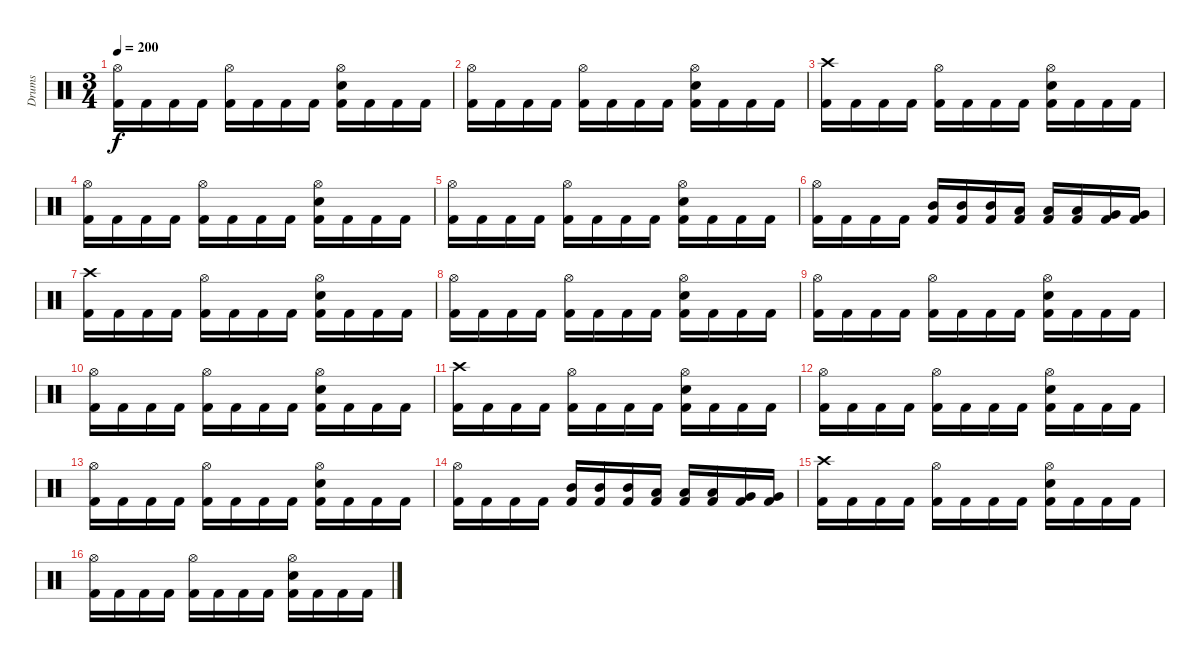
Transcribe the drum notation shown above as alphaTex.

\track ("Drums" "Drums") {instrument percussion}
\staff {score}
\articulation defaults
\ts (3 4)
\tempo 200
\clef neutral
\ks c
("Hi-Hat (open)" "Kick (hit) 2").16{dy f} "Kick (hit) 2".16 "Kick (hit) 2".16 "Kick (hit) 2".16 ("Hi-Hat (open)" "Kick (hit) 2").16 "Kick (hit) 2".16 "Kick (hit) 2".16 "Kick (hit) 2".16 ("Hi-Hat (open)" "Electric Snare (hit)" "Kick (hit) 2").16 "Kick (hit) 2".16 "Kick (hit) 2".16 "Kick (hit) 2".16 |
("Hi-Hat (open)" "Kick (hit) 2").16 "Kick (hit) 2".16 "Kick (hit) 2".16 "Kick (hit) 2".16 ("Hi-Hat (open)" "Kick (hit) 2").16 "Kick (hit) 2".16 "Kick (hit) 2".16 "Kick (hit) 2".16 ("Hi-Hat (open)" "Electric Snare (hit)" "Kick (hit) 2").16 "Kick (hit) 2".16 "Kick (hit) 2".16 "Kick (hit) 2".16 |
("Crash high (hit)" "Kick (hit) 2").16 "Kick (hit) 2".16 "Kick (hit) 2".16 "Kick (hit) 2".16 ("Hi-Hat (open)" "Kick (hit) 2").16 "Kick (hit) 2".16 "Kick (hit) 2".16 "Kick (hit) 2".16 ("Hi-Hat (open)" "Electric Snare (hit)" "Kick (hit) 2").16 "Kick (hit) 2".16 "Kick (hit) 2".16 "Kick (hit) 2".16 |
("Hi-Hat (open)" "Kick (hit) 2").16 "Kick (hit) 2".16 "Kick (hit) 2".16 "Kick (hit) 2".16 ("Hi-Hat (open)" "Kick (hit) 2").16 "Kick (hit) 2".16 "Kick (hit) 2".16 "Kick (hit) 2".16 ("Hi-Hat (open)" "Electric Snare (hit)" "Kick (hit) 2").16 "Kick (hit) 2".16 "Kick (hit) 2".16 "Kick (hit) 2".16 |
("Hi-Hat (open)" "Kick (hit) 2").16 "Kick (hit) 2".16 "Kick (hit) 2".16 "Kick (hit) 2".16 ("Hi-Hat (open)" "Kick (hit) 2").16 "Kick (hit) 2".16 "Kick (hit) 2".16 "Kick (hit) 2".16 ("Hi-Hat (open)" "Electric Snare (hit)" "Kick (hit) 2").16 "Kick (hit) 2".16 "Kick (hit) 2".16 "Kick (hit) 2".16 |
("Hi-Hat (open)" "Kick (hit) 2").16 "Kick (hit) 2".16 "Kick (hit) 2".16 "Kick (hit) 2".16 ("Mid Tom (hit)" "Kick (hit) 2").16 ("Mid Tom (hit)" "Kick (hit) 2").16 ("Mid Tom (hit)" "Kick (hit) 2").16 ("Low Tom (hit)" "Kick (hit) 2").16 ("Low Tom (hit)" "Kick (hit) 2").16 ("Low Tom (hit)" "Kick (hit) 2").16 ("Very Low Tom (hit)" "Kick (hit) 2").16 ("Very Low Tom (hit)" "Kick (hit) 2").16 |
("Crash high (hit)" "Kick (hit) 2").16 "Kick (hit) 2".16 "Kick (hit) 2".16 "Kick (hit) 2".16 ("Hi-Hat (open)" "Kick (hit) 2").16 "Kick (hit) 2".16 "Kick (hit) 2".16 "Kick (hit) 2".16 ("Hi-Hat (open)" "Electric Snare (hit)" "Kick (hit) 2").16 "Kick (hit) 2".16 "Kick (hit) 2".16 "Kick (hit) 2".16 |
("Hi-Hat (open)" "Kick (hit) 2").16 "Kick (hit) 2".16 "Kick (hit) 2".16 "Kick (hit) 2".16 ("Hi-Hat (open)" "Kick (hit) 2").16 "Kick (hit) 2".16 "Kick (hit) 2".16 "Kick (hit) 2".16 ("Hi-Hat (open)" "Electric Snare (hit)" "Kick (hit) 2").16 "Kick (hit) 2".16 "Kick (hit) 2".16 "Kick (hit) 2".16 |
("Hi-Hat (open)" "Kick (hit) 2").16 "Kick (hit) 2".16 "Kick (hit) 2".16 "Kick (hit) 2".16 ("Hi-Hat (open)" "Kick (hit) 2").16 "Kick (hit) 2".16 "Kick (hit) 2".16 "Kick (hit) 2".16 ("Hi-Hat (open)" "Electric Snare (hit)" "Kick (hit) 2").16 "Kick (hit) 2".16 "Kick (hit) 2".16 "Kick (hit) 2".16 |
("Hi-Hat (open)" "Kick (hit) 2").16 "Kick (hit) 2".16 "Kick (hit) 2".16 "Kick (hit) 2".16 ("Hi-Hat (open)" "Kick (hit) 2").16 "Kick (hit) 2".16 "Kick (hit) 2".16 "Kick (hit) 2".16 ("Hi-Hat (open)" "Electric Snare (hit)" "Kick (hit) 2").16 "Kick (hit) 2".16 "Kick (hit) 2".16 "Kick (hit) 2".16 |
("Crash high (hit)" "Kick (hit) 2").16 "Kick (hit) 2".16 "Kick (hit) 2".16 "Kick (hit) 2".16 ("Hi-Hat (open)" "Kick (hit) 2").16 "Kick (hit) 2".16 "Kick (hit) 2".16 "Kick (hit) 2".16 ("Hi-Hat (open)" "Electric Snare (hit)" "Kick (hit) 2").16 "Kick (hit) 2".16 "Kick (hit) 2".16 "Kick (hit) 2".16 |
("Hi-Hat (open)" "Kick (hit) 2").16 "Kick (hit) 2".16 "Kick (hit) 2".16 "Kick (hit) 2".16 ("Hi-Hat (open)" "Kick (hit) 2").16 "Kick (hit) 2".16 "Kick (hit) 2".16 "Kick (hit) 2".16 ("Hi-Hat (open)" "Electric Snare (hit)" "Kick (hit) 2").16 "Kick (hit) 2".16 "Kick (hit) 2".16 "Kick (hit) 2".16 |
("Hi-Hat (open)" "Kick (hit) 2").16 "Kick (hit) 2".16 "Kick (hit) 2".16 "Kick (hit) 2".16 ("Hi-Hat (open)" "Kick (hit) 2").16 "Kick (hit) 2".16 "Kick (hit) 2".16 "Kick (hit) 2".16 ("Hi-Hat (open)" "Electric Snare (hit)" "Kick (hit) 2").16 "Kick (hit) 2".16 "Kick (hit) 2".16 "Kick (hit) 2".16 |
("Hi-Hat (open)" "Kick (hit) 2").16 "Kick (hit) 2".16 "Kick (hit) 2".16 "Kick (hit) 2".16 ("Mid Tom (hit)" "Kick (hit) 2").16 ("Mid Tom (hit)" "Kick (hit) 2").16 ("Mid Tom (hit)" "Kick (hit) 2").16 ("Low Tom (hit)" "Kick (hit) 2").16 ("Low Tom (hit)" "Kick (hit) 2").16 ("Low Tom (hit)" "Kick (hit) 2").16 ("Very Low Tom (hit)" "Kick (hit) 2").16 ("Very Low Tom (hit)" "Kick (hit) 2").16 |
("Crash high (hit)" "Kick (hit) 2").16 "Kick (hit) 2".16 "Kick (hit) 2".16 "Kick (hit) 2".16 ("Hi-Hat (open)" "Kick (hit) 2").16 "Kick (hit) 2".16 "Kick (hit) 2".16 "Kick (hit) 2".16 ("Hi-Hat (open)" "Electric Snare (hit)" "Kick (hit) 2").16 "Kick (hit) 2".16 "Kick (hit) 2".16 "Kick (hit) 2".16 |
("Hi-Hat (open)" "Kick (hit) 2").16 "Kick (hit) 2".16 "Kick (hit) 2".16 "Kick (hit) 2".16 ("Hi-Hat (open)" "Kick (hit) 2").16 "Kick (hit) 2".16 "Kick (hit) 2".16 "Kick (hit) 2".16 ("Hi-Hat (open)" "Electric Snare (hit)" "Kick (hit) 2").16 "Kick (hit) 2".16 "Kick (hit) 2".16 "Kick (hit) 2".16
